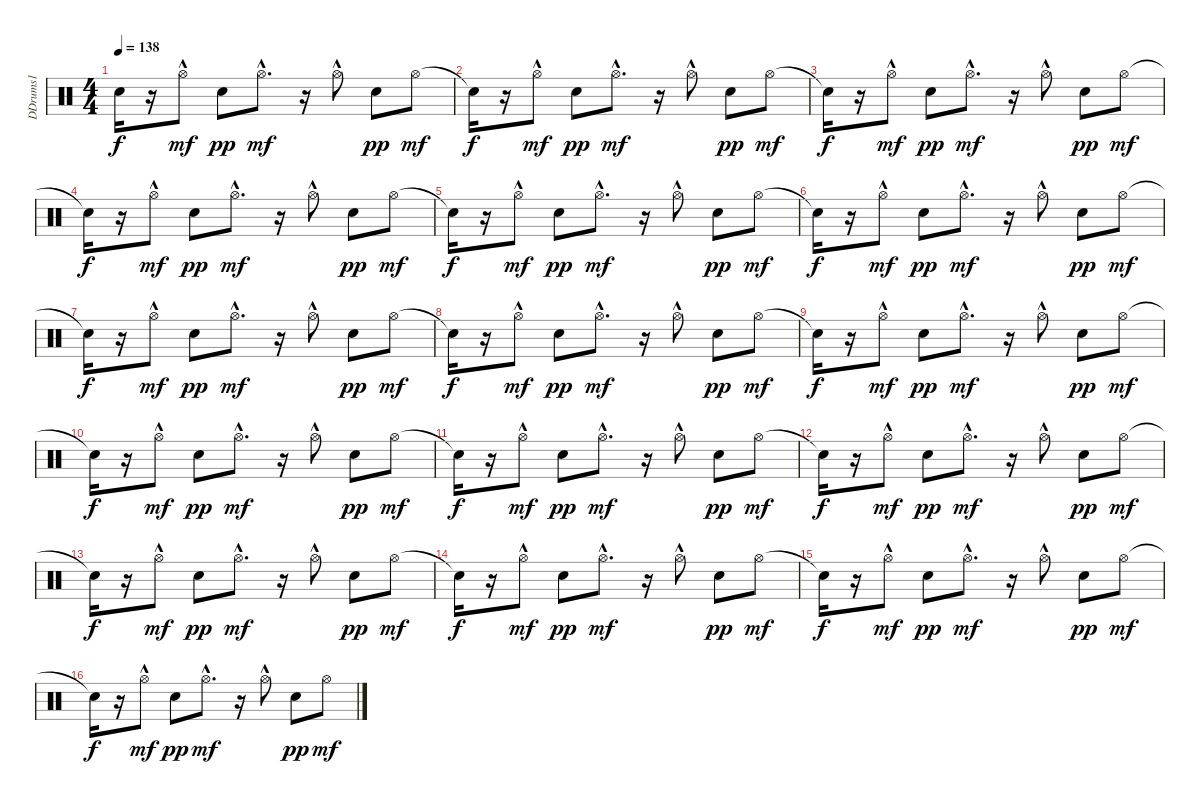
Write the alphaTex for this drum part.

\track ("DDrums1" "DDrums1") {instrument percussion}
\staff {score}
\articulation defaults
\ts (4 4)
\tempo 138
\clef neutral
\ks c "Snare (hit)"{t}.16{dy f}
r.16 "Hi-Hat (open)"{hac}.8{dy mf} "Electric Snare (hit)".8{dy pp} "Hi-Hat (open)"{hac}.8{d dy mf} r.16 "Hi-Hat (open)"{hac}.8 "Electric Snare (hit)".8{dy pp} "Hi-Hat (open)".8{dy mf} |
"Snare (hit)"{t}.16{dy f} r.16 "Hi-Hat (open)"{hac}.8{dy mf} "Electric Snare (hit)".8{dy pp} "Hi-Hat (open)"{hac}.8{d dy mf} r.16 "Hi-Hat (open)"{hac}.8 "Electric Snare (hit)".8{dy pp} "Hi-Hat (open)".8{dy mf} |
"Snare (hit)"{t}.16{dy f} r.16 "Hi-Hat (open)"{hac}.8{dy mf} "Electric Snare (hit)".8{dy pp} "Hi-Hat (open)"{hac}.8{d dy mf} r.16 "Hi-Hat (open)"{hac}.8 "Electric Snare (hit)".8{dy pp} "Hi-Hat (open)".8{dy mf} |
"Snare (hit)"{t}.16{dy f} r.16 "Hi-Hat (open)"{hac}.8{dy mf} "Electric Snare (hit)".8{dy pp} "Hi-Hat (open)"{hac}.8{d dy mf} r.16 "Hi-Hat (open)"{hac}.8 "Electric Snare (hit)".8{dy pp} "Hi-Hat (open)".8{dy mf} |
"Snare (hit)"{t}.16{dy f} r.16 "Hi-Hat (open)"{hac}.8{dy mf} "Electric Snare (hit)".8{dy pp} "Hi-Hat (open)"{hac}.8{d dy mf} r.16 "Hi-Hat (open)"{hac}.8 "Electric Snare (hit)".8{dy pp} "Hi-Hat (open)".8{dy mf} |
"Snare (hit)"{t}.16{dy f} r.16 "Hi-Hat (open)"{hac}.8{dy mf} "Electric Snare (hit)".8{dy pp} "Hi-Hat (open)"{hac}.8{d dy mf} r.16 "Hi-Hat (open)"{hac}.8 "Electric Snare (hit)".8{dy pp} "Hi-Hat (open)".8{dy mf} |
"Snare (hit)"{t}.16{dy f} r.16 "Hi-Hat (open)"{hac}.8{dy mf} "Electric Snare (hit)".8{dy pp} "Hi-Hat (open)"{hac}.8{d dy mf} r.16 "Hi-Hat (open)"{hac}.8 "Electric Snare (hit)".8{dy pp} "Hi-Hat (open)".8{dy mf} |
"Snare (hit)"{t}.16{dy f} r.16 "Hi-Hat (open)"{hac}.8{dy mf} "Electric Snare (hit)".8{dy pp} "Hi-Hat (open)"{hac}.8{d dy mf} r.16 "Hi-Hat (open)"{hac}.8 "Electric Snare (hit)".8{dy pp} "Hi-Hat (open)".8{dy mf} |
"Snare (hit)"{t}.16{dy f} r.16 "Hi-Hat (open)"{hac}.8{dy mf} "Electric Snare (hit)".8{dy pp} "Hi-Hat (open)"{hac}.8{d dy mf} r.16 "Hi-Hat (open)"{hac}.8 "Electric Snare (hit)".8{dy pp} "Hi-Hat (open)".8{dy mf} |
"Snare (hit)"{t}.16{dy f} r.16 "Hi-Hat (open)"{hac}.8{dy mf} "Electric Snare (hit)".8{dy pp} "Hi-Hat (open)"{hac}.8{d dy mf} r.16 "Hi-Hat (open)"{hac}.8 "Electric Snare (hit)".8{dy pp} "Hi-Hat (open)".8{dy mf} |
"Snare (hit)"{t}.16{dy f} r.16 "Hi-Hat (open)"{hac}.8{dy mf} "Electric Snare (hit)".8{dy pp} "Hi-Hat (open)"{hac}.8{d dy mf} r.16 "Hi-Hat (open)"{hac}.8 "Electric Snare (hit)".8{dy pp} "Hi-Hat (open)".8{dy mf} |
"Snare (hit)"{t}.16{dy f} r.16 "Hi-Hat (open)"{hac}.8{dy mf} "Electric Snare (hit)".8{dy pp} "Hi-Hat (open)"{hac}.8{d dy mf} r.16 "Hi-Hat (open)"{hac}.8 "Electric Snare (hit)".8{dy pp} "Hi-Hat (open)".8{dy mf} |
"Snare (hit)"{t}.16{dy f} r.16 "Hi-Hat (open)"{hac}.8{dy mf} "Electric Snare (hit)".8{dy pp} "Hi-Hat (open)"{hac}.8{d dy mf} r.16 "Hi-Hat (open)"{hac}.8 "Electric Snare (hit)".8{dy pp} "Hi-Hat (open)".8{dy mf} |
"Snare (hit)"{t}.16{dy f} r.16 "Hi-Hat (open)"{hac}.8{dy mf} "Electric Snare (hit)".8{dy pp} "Hi-Hat (open)"{hac}.8{d dy mf} r.16 "Hi-Hat (open)"{hac}.8 "Electric Snare (hit)".8{dy pp} "Hi-Hat (open)".8{dy mf} |
"Snare (hit)"{t}.16{dy f} r.16 "Hi-Hat (open)"{hac}.8{dy mf} "Electric Snare (hit)".8{dy pp} "Hi-Hat (open)"{hac}.8{d dy mf} r.16 "Hi-Hat (open)"{hac}.8 "Electric Snare (hit)".8{dy pp} "Hi-Hat (open)".8{dy mf} |
"Snare (hit)"{t}.16{dy f} r.16 "Hi-Hat (open)"{hac}.8{dy mf} "Electric Snare (hit)".8{dy pp} "Hi-Hat (open)"{hac}.8{d dy mf} r.16 "Hi-Hat (open)"{hac}.8 "Electric Snare (hit)".8{dy pp} "Hi-Hat (open)".8{dy mf}
